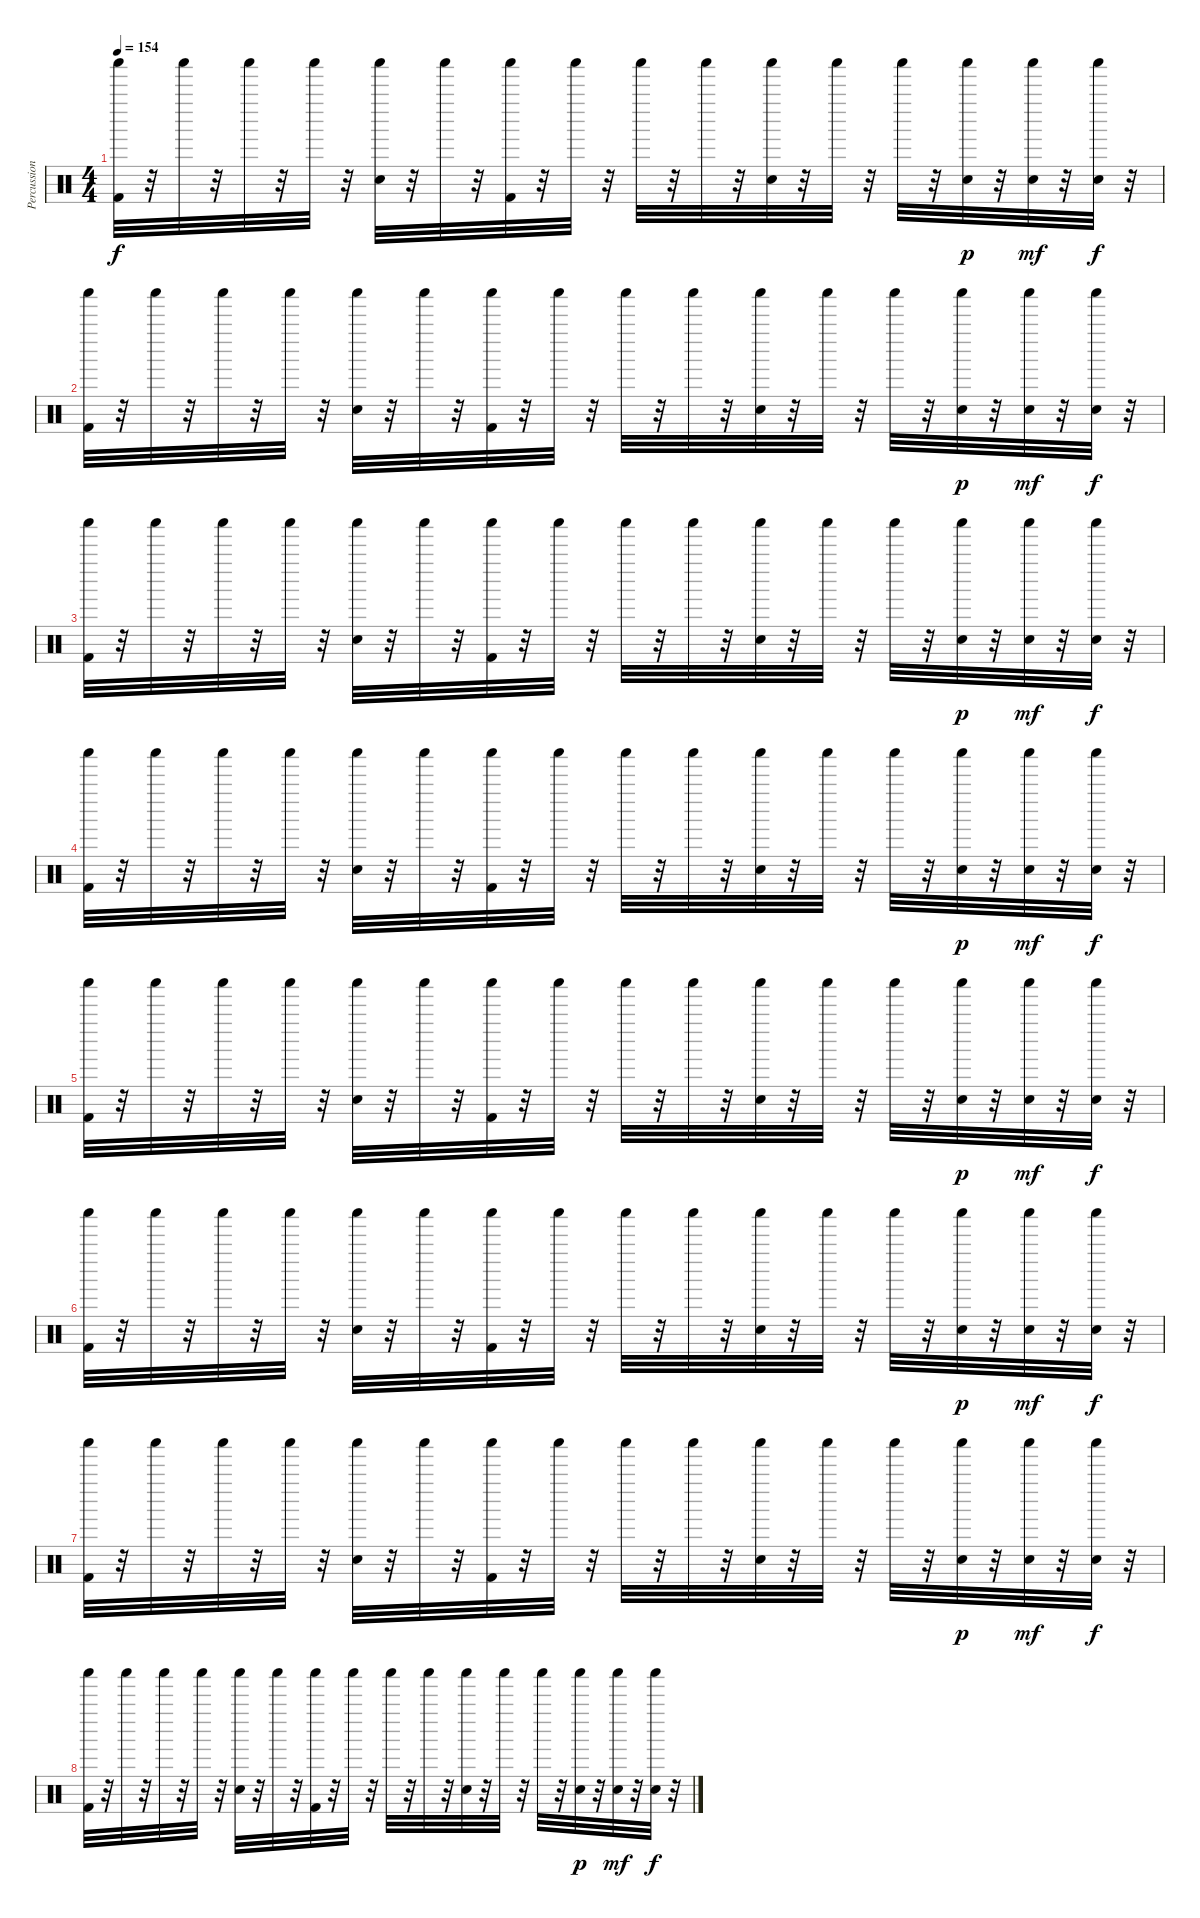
\track ("Percussion" "Percussion") {instrument percussion}
\staff {score}
\articulation defaults
\ts (4 4)
\tempo 154
\clef neutral
\ks c
("Shaker (hit)" "Kick (hit) 2").32{dy f} r.32 "Shaker (hit)".32 r.32 "Shaker (hit)".32 r.32 "Shaker (hit)".32 r.32 ("Shaker (hit)" "Snare (hit) 2").32 r.32 "Shaker (hit)".32 r.32 ("Shaker (hit)" "Kick (hit) 2").32 r.32 "Shaker (hit)".32 r.32 "Shaker (hit)".32 r.32 "Shaker (hit)".32 r.32 ("Shaker (hit)" "Snare (hit) 2").32 r.32 "Shaker (hit)".32 r.32 "Shaker (hit)".32 r.32 ("Shaker (hit)" "Snare (hit) 2").32{dy p} r.32 ("Shaker (hit)" "Snare (hit) 2").32{dy mf} r.32 ("Shaker (hit)" "Snare (hit) 2").32{dy f} r.32 |
("Shaker (hit)" "Kick (hit) 2").32 r.32 "Shaker (hit)".32 r.32 "Shaker (hit)".32 r.32 "Shaker (hit)".32 r.32 ("Shaker (hit)" "Snare (hit) 2").32 r.32 "Shaker (hit)".32 r.32 ("Shaker (hit)" "Kick (hit) 2").32 r.32 "Shaker (hit)".32 r.32 "Shaker (hit)".32 r.32 "Shaker (hit)".32 r.32 ("Shaker (hit)" "Snare (hit) 2").32 r.32 "Shaker (hit)".32 r.32 "Shaker (hit)".32 r.32 ("Shaker (hit)" "Snare (hit) 2").32{dy p} r.32 ("Shaker (hit)" "Snare (hit) 2").32{dy mf} r.32 ("Shaker (hit)" "Snare (hit) 2").32{dy f} r.32 |
("Shaker (hit)" "Kick (hit) 2").32 r.32 "Shaker (hit)".32 r.32 "Shaker (hit)".32 r.32 "Shaker (hit)".32 r.32 ("Shaker (hit)" "Snare (hit) 2").32 r.32 "Shaker (hit)".32 r.32 ("Shaker (hit)" "Kick (hit) 2").32 r.32 "Shaker (hit)".32 r.32 "Shaker (hit)".32 r.32 "Shaker (hit)".32 r.32 ("Shaker (hit)" "Snare (hit) 2").32 r.32 "Shaker (hit)".32 r.32 "Shaker (hit)".32 r.32 ("Shaker (hit)" "Snare (hit) 2").32{dy p} r.32 ("Shaker (hit)" "Snare (hit) 2").32{dy mf} r.32 ("Shaker (hit)" "Snare (hit) 2").32{dy f} r.32 |
("Shaker (hit)" "Kick (hit) 2").32 r.32 "Shaker (hit)".32 r.32 "Shaker (hit)".32 r.32 "Shaker (hit)".32 r.32 ("Shaker (hit)" "Snare (hit) 2").32 r.32 "Shaker (hit)".32 r.32 ("Shaker (hit)" "Kick (hit) 2").32 r.32 "Shaker (hit)".32 r.32 "Shaker (hit)".32 r.32 "Shaker (hit)".32 r.32 ("Shaker (hit)" "Snare (hit) 2").32 r.32 "Shaker (hit)".32 r.32 "Shaker (hit)".32 r.32 ("Shaker (hit)" "Snare (hit) 2").32{dy p} r.32 ("Shaker (hit)" "Snare (hit) 2").32{dy mf} r.32 ("Shaker (hit)" "Snare (hit) 2").32{dy f} r.32 |
("Shaker (hit)" "Kick (hit) 2").32 r.32 "Shaker (hit)".32 r.32 "Shaker (hit)".32 r.32 "Shaker (hit)".32 r.32 ("Shaker (hit)" "Snare (hit) 2").32 r.32 "Shaker (hit)".32 r.32 ("Shaker (hit)" "Kick (hit) 2").32 r.32 "Shaker (hit)".32 r.32 "Shaker (hit)".32 r.32 "Shaker (hit)".32 r.32 ("Shaker (hit)" "Snare (hit) 2").32 r.32 "Shaker (hit)".32 r.32 "Shaker (hit)".32 r.32 ("Shaker (hit)" "Snare (hit) 2").32{dy p} r.32 ("Shaker (hit)" "Snare (hit) 2").32{dy mf} r.32 ("Shaker (hit)" "Snare (hit) 2").32{dy f} r.32 |
("Shaker (hit)" "Kick (hit) 2").32 r.32 "Shaker (hit)".32 r.32 "Shaker (hit)".32 r.32 "Shaker (hit)".32 r.32 ("Shaker (hit)" "Snare (hit) 2").32 r.32 "Shaker (hit)".32 r.32 ("Shaker (hit)" "Kick (hit) 2").32 r.32 "Shaker (hit)".32 r.32 "Shaker (hit)".32 r.32 "Shaker (hit)".32 r.32 ("Shaker (hit)" "Snare (hit) 2").32 r.32 "Shaker (hit)".32 r.32 "Shaker (hit)".32 r.32 ("Shaker (hit)" "Snare (hit) 2").32{dy p} r.32 ("Shaker (hit)" "Snare (hit) 2").32{dy mf} r.32 ("Shaker (hit)" "Snare (hit) 2").32{dy f} r.32 |
("Shaker (hit)" "Kick (hit) 2").32 r.32 "Shaker (hit)".32 r.32 "Shaker (hit)".32 r.32 "Shaker (hit)".32 r.32 ("Shaker (hit)" "Snare (hit) 2").32 r.32 "Shaker (hit)".32 r.32 ("Shaker (hit)" "Kick (hit) 2").32 r.32 "Shaker (hit)".32 r.32 "Shaker (hit)".32 r.32 "Shaker (hit)".32 r.32 ("Shaker (hit)" "Snare (hit) 2").32 r.32 "Shaker (hit)".32 r.32 "Shaker (hit)".32 r.32 ("Shaker (hit)" "Snare (hit) 2").32{dy p} r.32 ("Shaker (hit)" "Snare (hit) 2").32{dy mf} r.32 ("Shaker (hit)" "Snare (hit) 2").32{dy f} r.32 |
("Shaker (hit)" "Kick (hit) 2").32 r.32 "Shaker (hit)".32 r.32 "Shaker (hit)".32 r.32 "Shaker (hit)".32 r.32 ("Shaker (hit)" "Snare (hit) 2").32 r.32 "Shaker (hit)".32 r.32 ("Shaker (hit)" "Kick (hit) 2").32 r.32 "Shaker (hit)".32 r.32 "Shaker (hit)".32 r.32 "Shaker (hit)".32 r.32 ("Shaker (hit)" "Snare (hit) 2").32 r.32 "Shaker (hit)".32 r.32 "Shaker (hit)".32 r.32 ("Shaker (hit)" "Snare (hit) 2").32{dy p} r.32 ("Shaker (hit)" "Snare (hit) 2").32{dy mf} r.32 ("Shaker (hit)" "Snare (hit) 2").32{dy f} r.32
